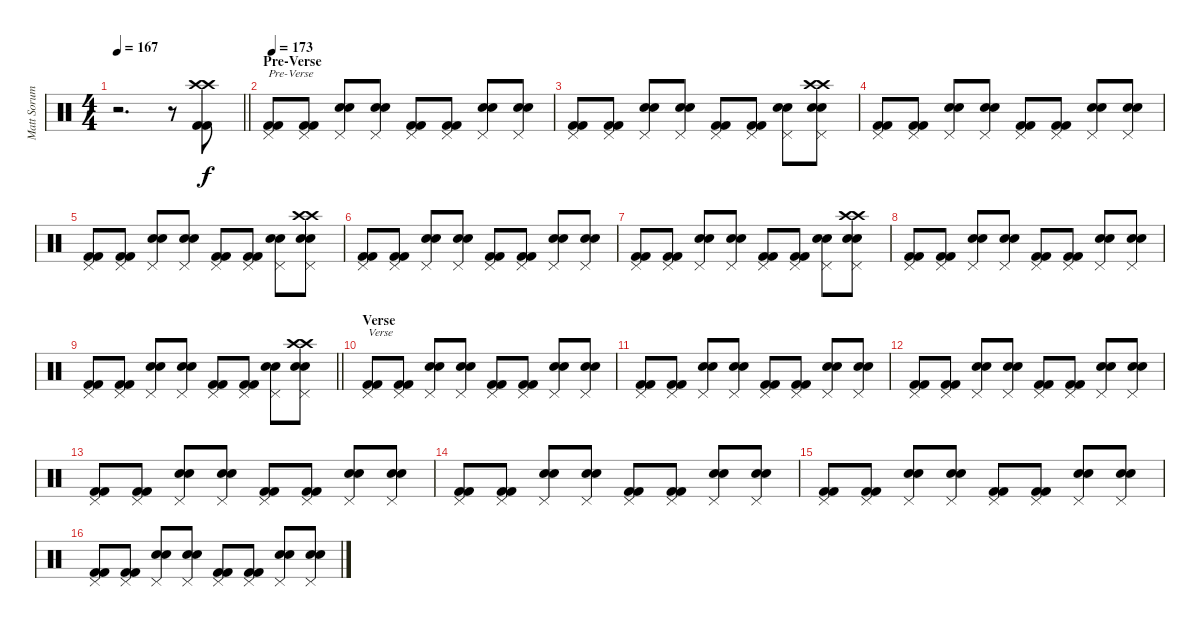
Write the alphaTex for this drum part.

\track ("Matt Sorum" "Matt Sorum") {instrument percussion}
\staff {score}
\articulation defaults
\ts (4 4)
\tempo 167
\clef neutral
\barLineRight lightlight
\ks c
r.2{d dy f} r.8 ("Crash high (hit)" "Crash high (hit)" "Kick (hit) 2" "Kick (hit) 2").8 |
\section ("" "Pre-Verse")
\tempo 173
("Pedal Hi-Hat (hit)" "Kick (hit) 2" "Kick (hit) 2").8{txt "Pre-Verse"} ("Pedal Hi-Hat (hit)" "Kick (hit) 2" "Kick (hit) 2").8 ("Pedal Hi-Hat (hit)" "Snare (hit) 2" "Snare (hit) 2").8 ("Pedal Hi-Hat (hit)" "Snare (hit) 2" "Snare (hit) 2").8 ("Pedal Hi-Hat (hit)" "Kick (hit) 2" "Kick (hit) 2").8 ("Pedal Hi-Hat (hit)" "Kick (hit) 2" "Kick (hit) 2").8 ("Pedal Hi-Hat (hit)" "Snare (hit) 2" "Snare (hit) 2").8 ("Pedal Hi-Hat (hit)" "Snare (hit) 2" "Snare (hit) 2").8 |
("Pedal Hi-Hat (hit)" "Kick (hit) 2" "Kick (hit) 2").8 ("Pedal Hi-Hat (hit)" "Kick (hit) 2" "Kick (hit) 2").8 ("Pedal Hi-Hat (hit)" "Snare (hit) 2" "Snare (hit) 2").8 ("Pedal Hi-Hat (hit)" "Snare (hit) 2" "Snare (hit) 2").8 ("Pedal Hi-Hat (hit)" "Kick (hit) 2" "Kick (hit) 2").8 ("Pedal Hi-Hat (hit)" "Kick (hit) 2" "Kick (hit) 2").8 ("Pedal Hi-Hat (hit)" "Snare (hit) 2" "Snare (hit) 2").8 ("Crash high (hit)" "Crash high (hit)" "Pedal Hi-Hat (hit)" "Snare (hit) 2" "Snare (hit) 2").8 |
("Pedal Hi-Hat (hit)" "Kick (hit) 2" "Kick (hit) 2").8 ("Pedal Hi-Hat (hit)" "Kick (hit) 2" "Kick (hit) 2").8 ("Pedal Hi-Hat (hit)" "Snare (hit) 2" "Snare (hit) 2").8 ("Pedal Hi-Hat (hit)" "Snare (hit) 2" "Snare (hit) 2").8 ("Pedal Hi-Hat (hit)" "Kick (hit) 2" "Kick (hit) 2").8 ("Pedal Hi-Hat (hit)" "Kick (hit) 2" "Kick (hit) 2").8 ("Pedal Hi-Hat (hit)" "Snare (hit) 2" "Snare (hit) 2").8 ("Pedal Hi-Hat (hit)" "Snare (hit) 2" "Snare (hit) 2").8 |
("Pedal Hi-Hat (hit)" "Kick (hit) 2" "Kick (hit) 2").8 ("Pedal Hi-Hat (hit)" "Kick (hit) 2" "Kick (hit) 2").8 ("Pedal Hi-Hat (hit)" "Snare (hit) 2" "Snare (hit) 2").8 ("Pedal Hi-Hat (hit)" "Snare (hit) 2" "Snare (hit) 2").8 ("Pedal Hi-Hat (hit)" "Kick (hit) 2" "Kick (hit) 2").8 ("Pedal Hi-Hat (hit)" "Kick (hit) 2" "Kick (hit) 2").8 ("Pedal Hi-Hat (hit)" "Snare (hit) 2" "Snare (hit) 2").8 ("Crash high (hit)" "Crash high (hit)" "Pedal Hi-Hat (hit)" "Snare (hit) 2" "Snare (hit) 2").8 |
("Pedal Hi-Hat (hit)" "Kick (hit) 2" "Kick (hit) 2").8 ("Pedal Hi-Hat (hit)" "Kick (hit) 2" "Kick (hit) 2").8 ("Pedal Hi-Hat (hit)" "Snare (hit) 2" "Snare (hit) 2").8 ("Pedal Hi-Hat (hit)" "Snare (hit) 2" "Snare (hit) 2").8 ("Pedal Hi-Hat (hit)" "Kick (hit) 2" "Kick (hit) 2").8 ("Pedal Hi-Hat (hit)" "Kick (hit) 2" "Kick (hit) 2").8 ("Pedal Hi-Hat (hit)" "Snare (hit) 2" "Snare (hit) 2").8 ("Pedal Hi-Hat (hit)" "Snare (hit) 2" "Snare (hit) 2").8 |
("Pedal Hi-Hat (hit)" "Kick (hit) 2" "Kick (hit) 2").8 ("Pedal Hi-Hat (hit)" "Kick (hit) 2" "Kick (hit) 2").8 ("Pedal Hi-Hat (hit)" "Snare (hit) 2" "Snare (hit) 2").8 ("Pedal Hi-Hat (hit)" "Snare (hit) 2" "Snare (hit) 2").8 ("Pedal Hi-Hat (hit)" "Kick (hit) 2" "Kick (hit) 2").8 ("Pedal Hi-Hat (hit)" "Kick (hit) 2" "Kick (hit) 2").8 ("Pedal Hi-Hat (hit)" "Snare (hit) 2" "Snare (hit) 2").8 ("Crash high (hit)" "Crash high (hit)" "Pedal Hi-Hat (hit)" "Snare (hit) 2" "Snare (hit) 2").8 |
("Pedal Hi-Hat (hit)" "Kick (hit) 2" "Kick (hit) 2").8 ("Pedal Hi-Hat (hit)" "Kick (hit) 2" "Kick (hit) 2").8 ("Pedal Hi-Hat (hit)" "Snare (hit) 2" "Snare (hit) 2").8 ("Pedal Hi-Hat (hit)" "Snare (hit) 2" "Snare (hit) 2").8 ("Pedal Hi-Hat (hit)" "Kick (hit) 2" "Kick (hit) 2").8 ("Pedal Hi-Hat (hit)" "Kick (hit) 2" "Kick (hit) 2").8 ("Pedal Hi-Hat (hit)" "Snare (hit) 2" "Snare (hit) 2").8 ("Pedal Hi-Hat (hit)" "Snare (hit) 2" "Snare (hit) 2").8 |
\barLineRight lightlight
("Pedal Hi-Hat (hit)" "Kick (hit) 2" "Kick (hit) 2").8 ("Pedal Hi-Hat (hit)" "Kick (hit) 2" "Kick (hit) 2").8 ("Pedal Hi-Hat (hit)" "Snare (hit) 2" "Snare (hit) 2").8 ("Pedal Hi-Hat (hit)" "Snare (hit) 2" "Snare (hit) 2").8 ("Pedal Hi-Hat (hit)" "Kick (hit) 2" "Kick (hit) 2").8 ("Pedal Hi-Hat (hit)" "Kick (hit) 2" "Kick (hit) 2").8 ("Pedal Hi-Hat (hit)" "Snare (hit) 2" "Snare (hit) 2").8 ("Crash high (hit)" "Crash high (hit)" "Pedal Hi-Hat (hit)" "Snare (hit) 2" "Snare (hit) 2").8 |
\section ("" "Verse")
("Pedal Hi-Hat (hit)" "Kick (hit) 2" "Kick (hit) 2").8{txt "Verse"} ("Pedal Hi-Hat (hit)" "Kick (hit) 2" "Kick (hit) 2").8 ("Pedal Hi-Hat (hit)" "Snare (hit) 2" "Snare (hit) 2").8 ("Pedal Hi-Hat (hit)" "Snare (hit) 2" "Snare (hit) 2").8 ("Pedal Hi-Hat (hit)" "Kick (hit) 2" "Kick (hit) 2").8 ("Pedal Hi-Hat (hit)" "Kick (hit) 2" "Kick (hit) 2").8 ("Pedal Hi-Hat (hit)" "Snare (hit) 2" "Snare (hit) 2").8 ("Pedal Hi-Hat (hit)" "Snare (hit) 2" "Snare (hit) 2").8 |
("Pedal Hi-Hat (hit)" "Kick (hit) 2" "Kick (hit) 2").8 ("Pedal Hi-Hat (hit)" "Kick (hit) 2" "Kick (hit) 2").8 ("Pedal Hi-Hat (hit)" "Snare (hit) 2" "Snare (hit) 2").8 ("Pedal Hi-Hat (hit)" "Snare (hit) 2" "Snare (hit) 2").8 ("Pedal Hi-Hat (hit)" "Kick (hit) 2" "Kick (hit) 2").8 ("Pedal Hi-Hat (hit)" "Kick (hit) 2" "Kick (hit) 2").8 ("Pedal Hi-Hat (hit)" "Snare (hit) 2" "Snare (hit) 2").8 ("Pedal Hi-Hat (hit)" "Snare (hit) 2" "Snare (hit) 2").8 |
("Pedal Hi-Hat (hit)" "Kick (hit) 2" "Kick (hit) 2").8 ("Pedal Hi-Hat (hit)" "Kick (hit) 2" "Kick (hit) 2").8 ("Pedal Hi-Hat (hit)" "Snare (hit) 2" "Snare (hit) 2").8 ("Pedal Hi-Hat (hit)" "Snare (hit) 2" "Snare (hit) 2").8 ("Pedal Hi-Hat (hit)" "Kick (hit) 2" "Kick (hit) 2").8 ("Pedal Hi-Hat (hit)" "Kick (hit) 2" "Kick (hit) 2").8 ("Pedal Hi-Hat (hit)" "Snare (hit) 2" "Snare (hit) 2").8 ("Pedal Hi-Hat (hit)" "Snare (hit) 2" "Snare (hit) 2").8 |
("Pedal Hi-Hat (hit)" "Kick (hit) 2" "Kick (hit) 2").8 ("Pedal Hi-Hat (hit)" "Kick (hit) 2" "Kick (hit) 2").8 ("Pedal Hi-Hat (hit)" "Snare (hit) 2" "Snare (hit) 2").8 ("Pedal Hi-Hat (hit)" "Snare (hit) 2" "Snare (hit) 2").8 ("Pedal Hi-Hat (hit)" "Kick (hit) 2" "Kick (hit) 2").8 ("Pedal Hi-Hat (hit)" "Kick (hit) 2" "Kick (hit) 2").8 ("Pedal Hi-Hat (hit)" "Snare (hit) 2" "Snare (hit) 2").8 ("Pedal Hi-Hat (hit)" "Snare (hit) 2" "Snare (hit) 2").8 |
("Pedal Hi-Hat (hit)" "Kick (hit) 2" "Kick (hit) 2").8 ("Pedal Hi-Hat (hit)" "Kick (hit) 2" "Kick (hit) 2").8 ("Pedal Hi-Hat (hit)" "Snare (hit) 2" "Snare (hit) 2").8 ("Pedal Hi-Hat (hit)" "Snare (hit) 2" "Snare (hit) 2").8 ("Pedal Hi-Hat (hit)" "Kick (hit) 2" "Kick (hit) 2").8 ("Pedal Hi-Hat (hit)" "Kick (hit) 2" "Kick (hit) 2").8 ("Pedal Hi-Hat (hit)" "Snare (hit) 2" "Snare (hit) 2").8 ("Pedal Hi-Hat (hit)" "Snare (hit) 2" "Snare (hit) 2").8 |
("Pedal Hi-Hat (hit)" "Kick (hit) 2" "Kick (hit) 2").8 ("Pedal Hi-Hat (hit)" "Kick (hit) 2" "Kick (hit) 2").8 ("Pedal Hi-Hat (hit)" "Snare (hit) 2" "Snare (hit) 2").8 ("Pedal Hi-Hat (hit)" "Snare (hit) 2" "Snare (hit) 2").8 ("Pedal Hi-Hat (hit)" "Kick (hit) 2" "Kick (hit) 2").8 ("Pedal Hi-Hat (hit)" "Kick (hit) 2" "Kick (hit) 2").8 ("Pedal Hi-Hat (hit)" "Snare (hit) 2" "Snare (hit) 2").8 ("Pedal Hi-Hat (hit)" "Snare (hit) 2" "Snare (hit) 2").8 |
("Pedal Hi-Hat (hit)" "Kick (hit) 2" "Kick (hit) 2").8 ("Pedal Hi-Hat (hit)" "Kick (hit) 2" "Kick (hit) 2").8 ("Pedal Hi-Hat (hit)" "Snare (hit) 2" "Snare (hit) 2").8 ("Pedal Hi-Hat (hit)" "Snare (hit) 2" "Snare (hit) 2").8 ("Pedal Hi-Hat (hit)" "Kick (hit) 2" "Kick (hit) 2").8 ("Pedal Hi-Hat (hit)" "Kick (hit) 2" "Kick (hit) 2").8 ("Pedal Hi-Hat (hit)" "Snare (hit) 2" "Snare (hit) 2").8 ("Pedal Hi-Hat (hit)" "Snare (hit) 2" "Snare (hit) 2").8
